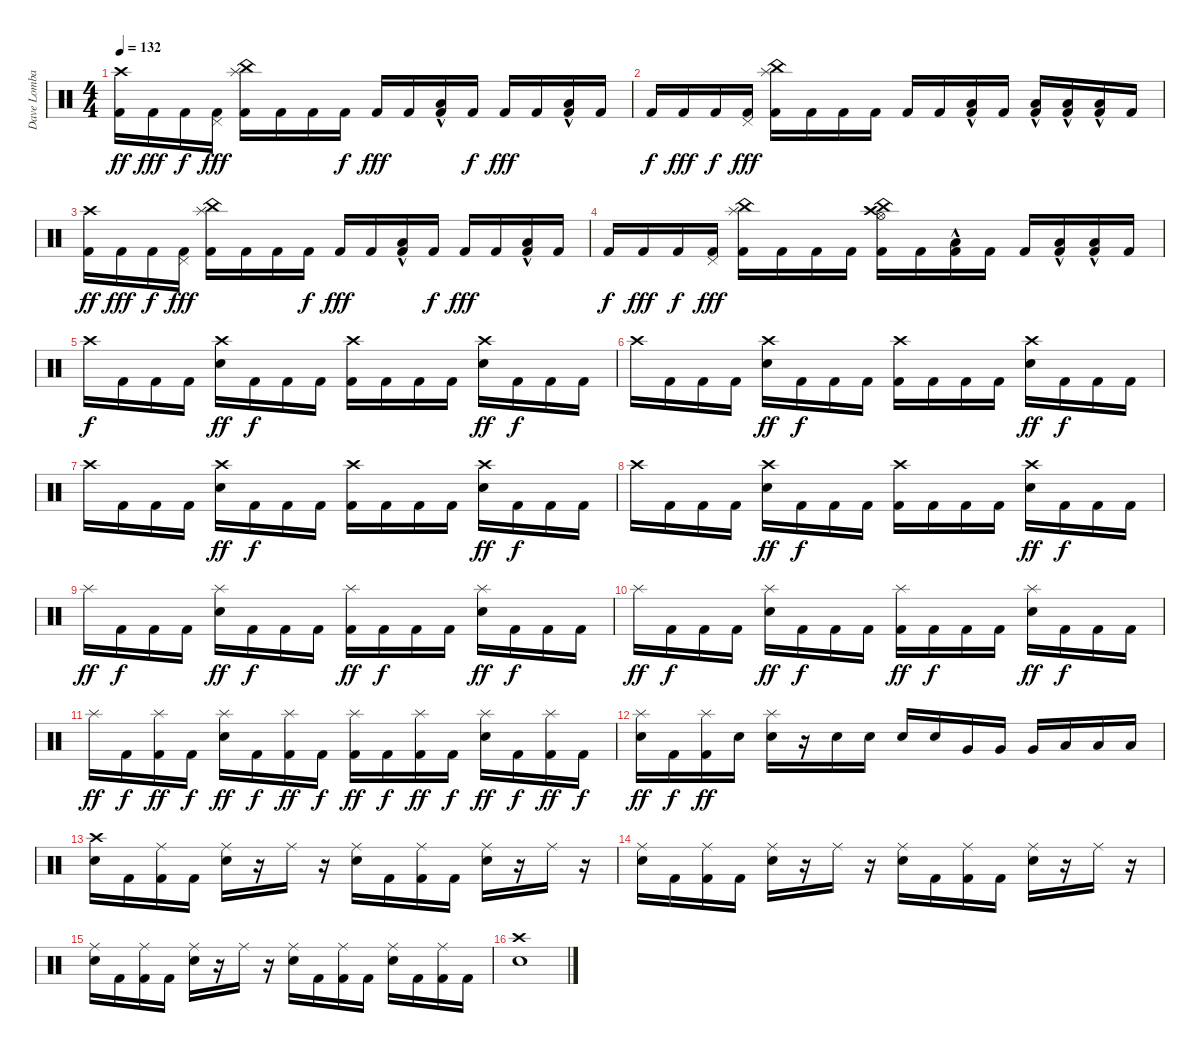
\track ("Dave Lombardo" "Dave Lomba") {instrument percussion}
\staff {score}
\articulation defaults
\ts (4 4)
\tempo 132
\clef neutral
\ks c
("Crash high (hit)" "Kick (hit) 2").16{dy ff} "Kick (hit) 2".16{dy fff} "Kick (hit) 2".16{dy f} ("Pedal Hi-Hat (hit)" "Kick (hit) 2").16{dy fff} ("Splash (hit)" "China (hit)" "Kick (hit) 2").16 "Kick (hit) 2".16 "Kick (hit) 2".16 "Kick (hit) 2".16{dy f} "Kick (hit) 2".16{dy fff} "Kick (hit) 2".16 ("Low Floor Tom (hit)"{hac} "Kick (hit) 2").16 "Kick (hit) 2".16{dy f} "Kick (hit) 2".16{dy fff} "Kick (hit) 2".16 ("Low Floor Tom (hit)"{hac} "Kick (hit) 2").16 "Kick (hit) 2".16 |
"Kick (hit) 2".16{dy f} "Kick (hit) 2".16{dy fff} "Kick (hit) 2".16{dy f} ("Pedal Hi-Hat (hit)" "Kick (hit) 2").16{dy fff} ("Splash (hit)" "China (hit)" "Kick (hit) 2").16 "Kick (hit) 2".16 "Kick (hit) 2".16 "Kick (hit) 2".16 "Kick (hit) 2".16 "Kick (hit) 2".16 ("Low Floor Tom (hit)"{hac} "Kick (hit) 2").16 "Kick (hit) 2".16 ("Low Floor Tom (hit)"{hac} "Kick (hit) 2").16 ("Low Floor Tom (hit)"{hac} "Kick (hit) 2").16 ("Low Floor Tom (hit)"{hac} "Kick (hit) 2").16 "Kick (hit) 2".16 |
("Crash high (hit)" "Kick (hit) 2").16{dy ff} "Kick (hit) 2".16{dy fff} "Kick (hit) 2".16{dy f} ("Pedal Hi-Hat (hit)" "Kick (hit) 2").16{dy fff} ("Splash (hit)" "China (hit)" "Kick (hit) 2").16 "Kick (hit) 2".16 "Kick (hit) 2".16 "Kick (hit) 2".16{dy f} "Kick (hit) 2".16{dy fff} "Kick (hit) 2".16 ("Low Floor Tom (hit)"{hac} "Kick (hit) 2").16 "Kick (hit) 2".16{dy f} "Kick (hit) 2".16{dy fff} "Kick (hit) 2".16 ("Low Floor Tom (hit)"{hac} "Kick (hit) 2").16 "Kick (hit) 2".16 |
"Kick (hit) 2".16{dy f} "Kick (hit) 2".16{dy fff} "Kick (hit) 2".16{dy f} ("Pedal Hi-Hat (hit)" "Kick (hit) 2").16{dy fff} ("Splash (hit)" "China (hit)" "Kick (hit) 2").16 "Kick (hit) 2".16 "Kick (hit) 2".16 "Kick (hit) 2".16 ("Hi-Hat (open)" "China (hit)" "Crash high (hit)" "Kick (hit) 2").16 "Kick (hit) 2".16 ("Low Floor Tom (hit)"{hac} "Kick (hit) 2").16 "Kick (hit) 2".16 "Kick (hit) 2".16 ("Low Floor Tom (hit)"{hac} "Kick (hit) 2").16 ("Low Floor Tom (hit)"{hac} "Kick (hit) 2").16 "Kick (hit) 2".16 |
"Crash high (hit)".16{dy f} "Kick (hit) 2".16 "Kick (hit) 2".16 "Kick (hit) 2".16 ("Crash high (hit)" "Snare (hit) 2").16{dy ff} "Kick (hit) 2".16{dy f} "Kick (hit) 2".16 "Kick (hit) 2".16 ("Crash high (hit)" "Kick (hit) 2").16 "Kick (hit) 2".16 "Kick (hit) 2".16 "Kick (hit) 2".16 ("Crash high (hit)" "Snare (hit) 2").16{dy ff} "Kick (hit) 2".16{dy f} "Kick (hit) 2".16 "Kick (hit) 2".16 |
"Crash high (hit)".16 "Kick (hit) 2".16 "Kick (hit) 2".16 "Kick (hit) 2".16 ("Crash high (hit)" "Snare (hit) 2").16{dy ff} "Kick (hit) 2".16{dy f} "Kick (hit) 2".16 "Kick (hit) 2".16 ("Crash high (hit)" "Kick (hit) 2").16 "Kick (hit) 2".16 "Kick (hit) 2".16 "Kick (hit) 2".16 ("Crash high (hit)" "Snare (hit) 2").16{dy ff} "Kick (hit) 2".16{dy f} "Kick (hit) 2".16 "Kick (hit) 2".16 |
"Crash high (hit)".16 "Kick (hit) 2".16 "Kick (hit) 2".16 "Kick (hit) 2".16 ("Crash high (hit)" "Snare (hit) 2").16{dy ff} "Kick (hit) 2".16{dy f} "Kick (hit) 2".16 "Kick (hit) 2".16 ("Crash high (hit)" "Kick (hit) 2").16 "Kick (hit) 2".16 "Kick (hit) 2".16 "Kick (hit) 2".16 ("Crash high (hit)" "Snare (hit) 2").16{dy ff} "Kick (hit) 2".16{dy f} "Kick (hit) 2".16 "Kick (hit) 2".16 |
"Crash high (hit)".16 "Kick (hit) 2".16 "Kick (hit) 2".16 "Kick (hit) 2".16 ("Crash high (hit)" "Snare (hit) 2").16{dy ff} "Kick (hit) 2".16{dy f} "Kick (hit) 2".16 "Kick (hit) 2".16 ("Crash high (hit)" "Kick (hit) 2").16 "Kick (hit) 2".16 "Kick (hit) 2".16 "Kick (hit) 2".16 ("Crash high (hit)" "Snare (hit) 2").16{dy ff} "Kick (hit) 2".16{dy f} "Kick (hit) 2".16 "Kick (hit) 2".16 |
"Splash (hit)".16{dy ff} "Kick (hit) 2".16{dy f} "Kick (hit) 2".16 "Kick (hit) 2".16 ("Splash (hit)" "Snare (hit) 2").16{dy ff} "Kick (hit) 2".16{dy f} "Kick (hit) 2".16 "Kick (hit) 2".16 ("Splash (hit)" "Kick (hit) 2").16{dy ff} "Kick (hit) 2".16{dy f} "Kick (hit) 2".16 "Kick (hit) 2".16 ("Splash (hit)" "Snare (hit) 2").16{dy ff} "Kick (hit) 2".16{dy f} "Kick (hit) 2".16 "Kick (hit) 2".16 |
"Splash (hit)".16{dy ff} "Kick (hit) 2".16{dy f} "Kick (hit) 2".16 "Kick (hit) 2".16 ("Splash (hit)" "Snare (hit) 2").16{dy ff} "Kick (hit) 2".16{dy f} "Kick (hit) 2".16 "Kick (hit) 2".16 ("Splash (hit)" "Kick (hit) 2").16{dy ff} "Kick (hit) 2".16{dy f} "Kick (hit) 2".16 "Kick (hit) 2".16 ("Splash (hit)" "Snare (hit) 2").16{dy ff} "Kick (hit) 2".16{dy f} "Kick (hit) 2".16 "Kick (hit) 2".16 |
"Splash (hit)".16{dy ff} "Kick (hit) 2".16{dy f} ("Splash (hit)" "Kick (hit) 2").16{dy ff} "Kick (hit) 2".16{dy f} ("Splash (hit)" "Snare (hit) 2").16{dy ff} "Kick (hit) 2".16{dy f} ("Splash (hit)" "Kick (hit) 2").16{dy ff} "Kick (hit) 2".16{dy f} ("Splash (hit)" "Kick (hit) 2").16{dy ff} "Kick (hit) 2".16{dy f} ("Splash (hit)" "Kick (hit) 2").16{dy ff} "Kick (hit) 2".16{dy f} ("Splash (hit)" "Snare (hit) 2").16{dy ff} "Kick (hit) 2".16{dy f} ("Splash (hit)" "Kick (hit) 2").16{dy ff} "Kick (hit) 2".16{dy f} |
("Splash (hit)" "Snare (hit) 2").16{dy ff} "Kick (hit) 2".16{dy f} ("Splash (hit)" "Kick (hit) 2").16{dy ff} "Snare (hit) 2".16 ("Splash (hit)" "Snare (hit) 2").16 r.16 "Snare (hit) 2".16 "Snare (hit) 2".16 "Snare (hit) 2".16 "Snare (hit) 2".16 "Very Low Tom (hit)".16 "Very Low Tom (hit)".16 "Very Low Tom (hit)".16 "Low Floor Tom (hit)".16 "Low Floor Tom (hit)".16 "Low Floor Tom (hit)".16 |
("Crash high (hit)" "Snare (hit) 2").16 "Kick (hit) 2".16 ("Ride (middle)" "Kick (hit) 2").16 "Kick (hit) 2".16 ("Ride (middle)" "Snare (hit) 2").16 r.16 "Ride (middle)".16 r.16 ("Ride (middle)" "Snare (hit) 2").16 "Kick (hit) 2".16 ("Ride (middle)" "Kick (hit) 2").16 "Kick (hit) 2".16 ("Ride (middle)" "Snare (hit) 2").16 r.16 "Ride (middle)".16 r.16 |
("Ride (middle)" "Snare (hit) 2").16 "Kick (hit) 2".16 ("Ride (middle)" "Kick (hit) 2").16 "Kick (hit) 2".16 ("Ride (middle)" "Snare (hit) 2").16 r.16 "Ride (middle)".16 r.16 ("Ride (middle)" "Snare (hit) 2").16 "Kick (hit) 2".16 ("Ride (middle)" "Kick (hit) 2").16 "Kick (hit) 2".16 ("Ride (middle)" "Snare (hit) 2").16 r.16 "Ride (middle)".16 r.16 |
("Ride (middle)" "Snare (hit) 2").16 "Kick (hit) 2".16 ("Ride (middle)" "Kick (hit) 2").16 "Kick (hit) 2".16 ("Ride (middle)" "Snare (hit) 2").16 r.16 "Ride (middle)".16 r.16 ("Ride (middle)" "Snare (hit) 2").16 "Kick (hit) 2".16 ("Ride (middle)" "Kick (hit) 2").16 "Kick (hit) 2".16 ("Ride (middle)" "Snare (hit) 2").16 "Kick (hit) 2".16 ("Ride (middle)" "Kick (hit) 2").16 "Kick (hit) 2".16 |
("Crash high (hit)" "Snare (hit) 2").1
